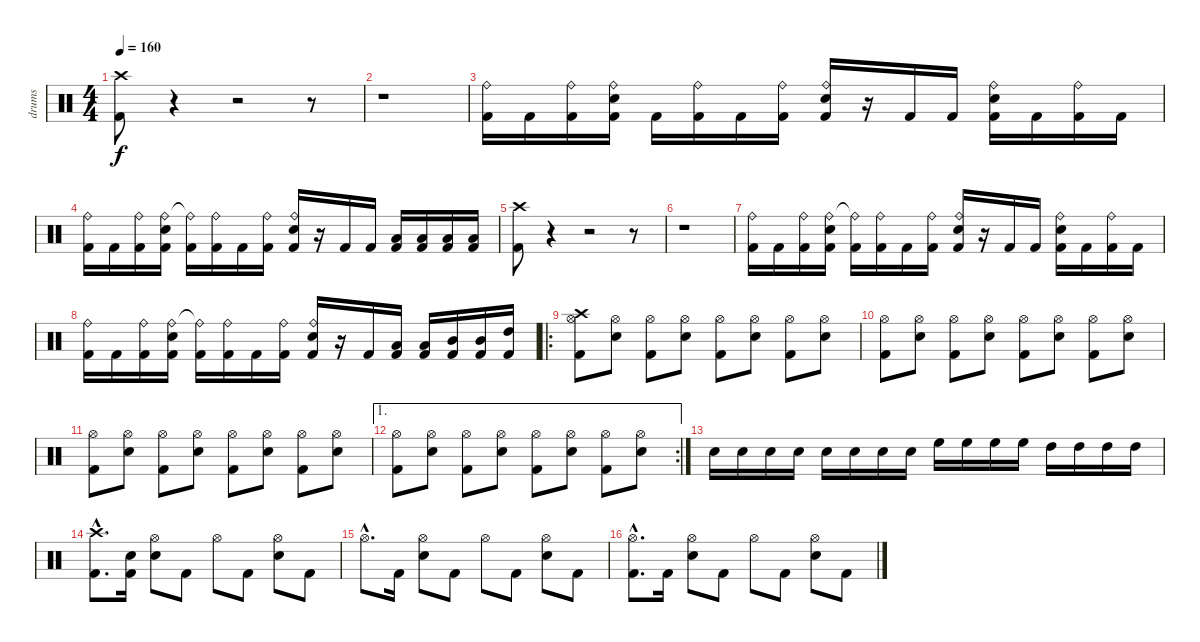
\track ("drums" "drums") {instrument percussion}
\staff {score}
\articulation defaults
\ts (4 4)
\tempo 160
\clef neutral
\ks c
("Crash high (hit)" "Kick (hit) 2").8{dy f} r.4 r.2 r.8 |
r.1 |
("Ride (bell)" "Kick (hit) 2").16 "Kick (hit) 2".16 ("Ride (bell)" "Kick (hit) 2").16 ("Ride (bell)" "Snare (hit) 2" "Kick (hit) 2").16 "Kick (hit) 2".16 ("Ride (bell)" "Kick (hit) 2").16 "Kick (hit) 2".16 ("Ride (bell)" "Kick (hit) 2").16 ("Ride (bell)" "Snare (hit) 2" "Kick (hit) 2").16 r.16 "Kick (hit) 2".16 "Kick (hit) 2".16 ("Ride (bell)" "Snare (hit) 2" "Kick (hit) 2").16 "Kick (hit) 2".16 ("Ride (bell)" "Kick (hit) 2").16 "Kick (hit) 2".16 |
("Ride (bell)" "Kick (hit) 2").16 "Kick (hit) 2".16 ("Ride (bell)" "Kick (hit) 2").16 ("Ride (bell)" "Snare (hit) 2" "Kick (hit) 2").16 ("Ride (bell)"{t} "Kick (hit) 2").16 ("Ride (bell)" "Kick (hit) 2").16 "Kick (hit) 2".16 ("Ride (bell)" "Kick (hit) 2").16 ("Ride (bell)" "Snare (hit) 2" "Kick (hit) 2").16 r.16 "Kick (hit) 2".16 "Kick (hit) 2".16 ("Low Tom (hit)" "Kick (hit) 2").16 ("Low Tom (hit)" "Kick (hit) 2").16 ("Low Tom (hit)" "Kick (hit) 2").16 ("Low Tom (hit)" "Kick (hit) 2").16 |
("Crash high (hit)" "Kick (hit) 2").8 r.4 r.2 r.8 |
r.1 |
("Ride (bell)" "Kick (hit) 2").16 "Kick (hit) 2".16 ("Ride (bell)" "Kick (hit) 2").16 ("Ride (bell)" "Snare (hit) 2" "Kick (hit) 2").16 ("Ride (bell)"{t} "Kick (hit) 2").16 ("Ride (bell)" "Kick (hit) 2").16 "Kick (hit) 2".16 ("Ride (bell)" "Kick (hit) 2").16 ("Ride (bell)" "Snare (hit) 2" "Kick (hit) 2").16 r.16 "Kick (hit) 2".16 "Kick (hit) 2".16 ("Ride (bell)" "Snare (hit) 2" "Kick (hit) 2").16 "Kick (hit) 2".16 ("Ride (bell)" "Kick (hit) 2").16 "Kick (hit) 2".16 |
("Ride (bell)" "Kick (hit) 2").16 "Kick (hit) 2".16 ("Ride (bell)" "Kick (hit) 2").16 ("Ride (bell)" "Snare (hit) 2" "Kick (hit) 2").16 ("Ride (bell)"{t} "Kick (hit) 2").16 ("Ride (bell)" "Kick (hit) 2").16 "Kick (hit) 2".16 ("Ride (bell)" "Kick (hit) 2").16 ("Ride (bell)" "Snare (hit) 2" "Kick (hit) 2").16 r.16 "Kick (hit) 2".16 ("Low Tom (hit)" "Kick (hit) 2").16 ("Low Tom (hit)" "Kick (hit) 2").16 ("Mid Tom (hit)" "Kick (hit) 2").16 ("Mid Tom (hit)" "Kick (hit) 2").16 ("High Tom (hit)" "Kick (hit) 2").16 |
\ro
("Crash high (hit)" "Hi-Hat (open)" "Kick (hit) 2").8 ("Hi-Hat (open)" "Snare (hit) 2").8 ("Hi-Hat (open)" "Kick (hit) 2").8 ("Hi-Hat (open)" "Snare (hit) 2").8 ("Hi-Hat (open)" "Kick (hit) 2").8 ("Hi-Hat (open)" "Snare (hit) 2").8 ("Hi-Hat (open)" "Kick (hit) 2").8 ("Hi-Hat (open)" "Snare (hit) 2").8 |
("Hi-Hat (open)" "Kick (hit) 2").8 ("Hi-Hat (open)" "Snare (hit) 2").8 ("Hi-Hat (open)" "Kick (hit) 2").8 ("Hi-Hat (open)" "Snare (hit) 2").8 ("Hi-Hat (open)" "Kick (hit) 2").8 ("Hi-Hat (open)" "Snare (hit) 2").8 ("Hi-Hat (open)" "Kick (hit) 2").8 ("Hi-Hat (open)" "Snare (hit) 2").8 |
("Hi-Hat (open)" "Kick (hit) 2").8 ("Hi-Hat (open)" "Snare (hit) 2").8 ("Hi-Hat (open)" "Kick (hit) 2").8 ("Hi-Hat (open)" "Snare (hit) 2").8 ("Hi-Hat (open)" "Kick (hit) 2").8 ("Hi-Hat (open)" "Snare (hit) 2").8 ("Hi-Hat (open)" "Kick (hit) 2").8 ("Hi-Hat (open)" "Snare (hit) 2").8 |
\ae 1
\rc 2
("Hi-Hat (open)" "Kick (hit) 2").8 ("Hi-Hat (open)" "Snare (hit) 2").8 ("Hi-Hat (open)" "Kick (hit) 2").8 ("Hi-Hat (open)" "Snare (hit) 2").8 ("Hi-Hat (open)" "Kick (hit) 2").8 ("Hi-Hat (open)" "Snare (hit) 2").8 ("Hi-Hat (open)" "Kick (hit) 2").8 ("Hi-Hat (open)" "Snare (hit) 2").8 |
"Snare (hit) 2".16 "Snare (hit) 2".16 "Snare (hit) 2".16 "Snare (hit) 2".16 "Snare (hit) 2".16 "Snare (hit) 2".16 "Snare (hit) 2".16 "Snare (hit) 2".16 "High Floor Tom (hit)".16 "High Floor Tom (hit)".16 "High Floor Tom (hit)".16 "High Floor Tom (hit)".16 "High Tom (hit)".16 "High Tom (hit)".16 "High Tom (hit)".16 "High Tom (hit)".16 |
("Crash high (hit)"{hac} "Kick (hit) 2"{hac}).8{d} ("Snare (hit) 2" "Kick (hit) 2").16 ("Hi-Hat (open)" "Snare (hit) 2").8 "Kick (hit) 2".8 "Hi-Hat (open)".8 "Kick (hit) 2".8 ("Hi-Hat (open)" "Snare (hit) 2").8 "Kick (hit) 2".8 |
"Hi-Hat (open)"{hac}.8{d} "Kick (hit) 2".16 ("Hi-Hat (open)" "Snare (hit) 2").8 "Kick (hit) 2".8 "Hi-Hat (open)".8 "Kick (hit) 2".8 ("Hi-Hat (open)" "Snare (hit) 2").8 "Kick (hit) 2".8 |
("Hi-Hat (open)"{hac} "Kick (hit) 2"{hac}).8{d} "Kick (hit) 2".16 ("Hi-Hat (open)" "Snare (hit) 2").8 "Kick (hit) 2".8 "Hi-Hat (open)".8 "Kick (hit) 2".8 ("Hi-Hat (open)" "Snare (hit) 2").8 "Kick (hit) 2".8
